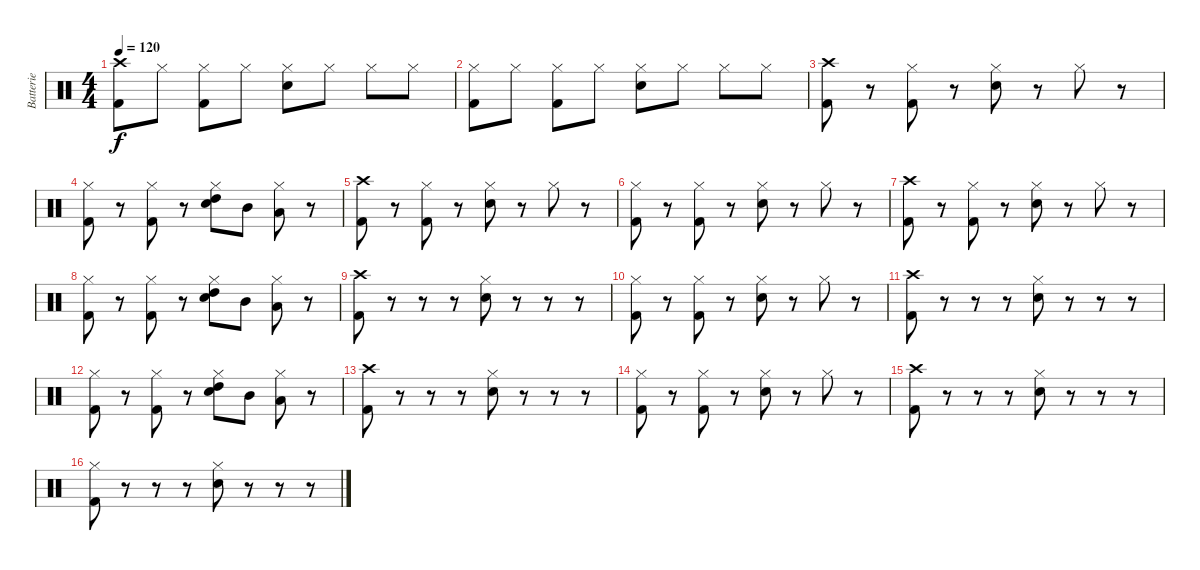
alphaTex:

\track ("Batterie" "Batterie") {instrument percussion}
\staff {score}
\articulation defaults
\ts (4 4)
\tempo 120
\clef neutral
\ks c
("Crash high (hit)" "Kick (hit) 2").8{dy f} "Hi-Hat (closed)".8 ("Hi-Hat (closed)" "Kick (hit) 2").8 "Hi-Hat (closed)".8 ("Hi-Hat (closed)" "Electric Snare (hit)").8 "Hi-Hat (closed)".8 "Hi-Hat (closed)".8 "Hi-Hat (closed)".8 |
("Hi-Hat (closed)" "Kick (hit) 2").8 "Hi-Hat (closed)".8 ("Hi-Hat (closed)" "Kick (hit) 2").8 "Hi-Hat (closed)".8 ("Hi-Hat (closed)" "Electric Snare (hit)").8 "Hi-Hat (closed)".8 "Hi-Hat (closed)".8 "Hi-Hat (closed)".8 |
("Crash high (hit)" "Kick (hit) 2").8 r.8 ("Hi-Hat (closed)" "Kick (hit) 2").8 r.8 ("Hi-Hat (closed)" "Electric Snare (hit)").8 r.8 "Hi-Hat (closed)".8 r.8 |
("Hi-Hat (closed)" "Kick (hit) 2").8 r.8 ("Hi-Hat (closed)" "Kick (hit) 2").8 r.8 ("Hi-Hat (closed)" "Electric Snare (hit)" "High Tom (hit)").8 "Mid Tom (hit)".8 ("Hi-Hat (closed)" "Low Tom (hit)").8 r.8 |
("Crash high (hit)" "Kick (hit) 2").8 r.8 ("Hi-Hat (closed)" "Kick (hit) 2").8 r.8 ("Hi-Hat (closed)" "Electric Snare (hit)").8 r.8 "Hi-Hat (closed)".8 r.8 |
("Hi-Hat (closed)" "Kick (hit) 2").8 r.8 ("Hi-Hat (closed)" "Kick (hit) 2").8 r.8 ("Hi-Hat (closed)" "Electric Snare (hit)").8 r.8 "Hi-Hat (closed)".8 r.8 |
("Crash high (hit)" "Kick (hit) 2").8 r.8 ("Hi-Hat (closed)" "Kick (hit) 2").8 r.8 ("Hi-Hat (closed)" "Electric Snare (hit)").8 r.8 "Hi-Hat (closed)".8 r.8 |
("Hi-Hat (closed)" "Kick (hit) 2").8 r.8 ("Hi-Hat (closed)" "Kick (hit) 2").8 r.8 ("Hi-Hat (closed)" "Electric Snare (hit)" "High Tom (hit)").8 "Mid Tom (hit)".8 ("Hi-Hat (closed)" "Low Tom (hit)").8 r.8 |
("Crash high (hit)" "Kick (hit) 2").8 r.8 r.8 r.8 ("Hi-Hat (closed)" "Electric Snare (hit)").8 r.8 r.8 r.8 |
("Hi-Hat (closed)" "Kick (hit) 2").8 r.8 ("Hi-Hat (closed)" "Kick (hit) 2").8 r.8 ("Hi-Hat (closed)" "Electric Snare (hit)").8 r.8 "Hi-Hat (closed)".8 r.8 |
("Crash high (hit)" "Kick (hit) 2").8 r.8 r.8 r.8 ("Hi-Hat (closed)" "Electric Snare (hit)").8 r.8 r.8 r.8 |
("Hi-Hat (closed)" "Kick (hit) 2").8 r.8 ("Hi-Hat (closed)" "Kick (hit) 2").8 r.8 ("Hi-Hat (closed)" "Electric Snare (hit)" "High Tom (hit)").8 "Mid Tom (hit)".8 ("Hi-Hat (closed)" "Low Tom (hit)").8 r.8 |
("Crash high (hit)" "Kick (hit) 2").8 r.8 r.8 r.8 ("Hi-Hat (closed)" "Electric Snare (hit)").8 r.8 r.8 r.8 |
("Hi-Hat (closed)" "Kick (hit) 2").8 r.8 ("Hi-Hat (closed)" "Kick (hit) 2").8 r.8 ("Hi-Hat (closed)" "Electric Snare (hit)").8 r.8 "Hi-Hat (closed)".8 r.8 |
("Crash high (hit)" "Kick (hit) 2").8 r.8 r.8 r.8 ("Hi-Hat (closed)" "Electric Snare (hit)").8 r.8 r.8 r.8 |
("Hi-Hat (closed)" "Kick (hit) 2").8 r.8 r.8 r.8 ("Hi-Hat (closed)" "Electric Snare (hit)").8 r.8 r.8 r.8
